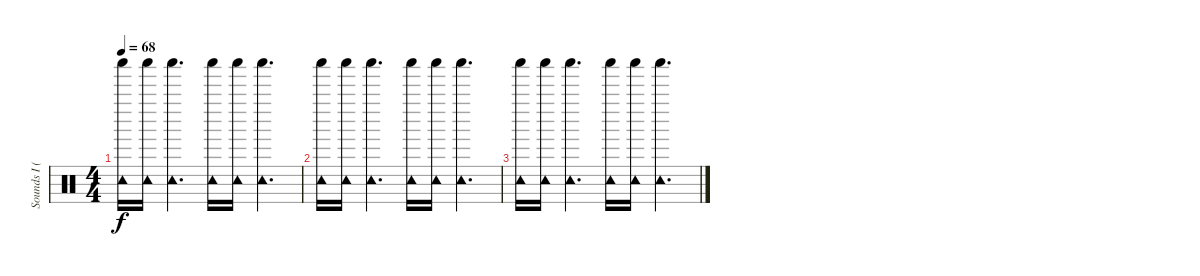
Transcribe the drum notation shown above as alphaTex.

\track ("Sounds I (Generic)" "Sounds I (") {instrument percussion}
\staff {score}
\articulation defaults
\ts (4 4)
\tempo 68
\clef neutral
\ks c
("Tambourine (hit)" "Shaker (hit)").16{dy f} ("Tambourine (hit)" "Shaker (hit)").16 ("Tambourine (hit)" "Shaker (hit)").4{d} ("Tambourine (hit)" "Shaker (hit)").16 ("Tambourine (hit)" "Shaker (hit)").16 ("Tambourine (hit)" "Shaker (hit)").4{d} |
("Tambourine (hit)" "Shaker (hit)").16 ("Tambourine (hit)" "Shaker (hit)").16 ("Tambourine (hit)" "Shaker (hit)").4{d} ("Tambourine (hit)" "Shaker (hit)").16 ("Tambourine (hit)" "Shaker (hit)").16 ("Tambourine (hit)" "Shaker (hit)").4{d} |
("Tambourine (hit)" "Shaker (hit)").16 ("Tambourine (hit)" "Shaker (hit)").16 ("Tambourine (hit)" "Shaker (hit)").4{d} ("Tambourine (hit)" "Shaker (hit)").16 ("Tambourine (hit)" "Shaker (hit)").16 ("Tambourine (hit)" "Shaker (hit)").4{d}
